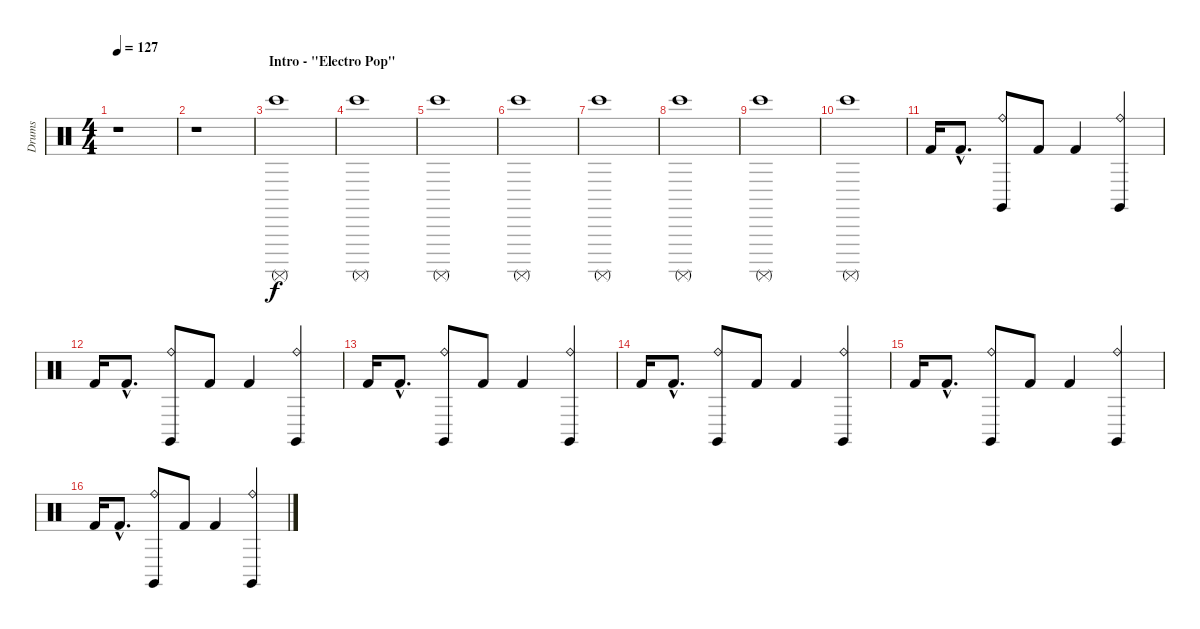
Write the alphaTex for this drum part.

\track ("Drums" "Drums") {instrument percussion}
\staff {score}
\articulation defaults
\ts (4 4)
\tempo 127
\clef neutral
\ks c
r.1{dy f} |
r.1 |
\section ("" "Intro - \"Electro Pop\"")
("Surdo (mute)" "Bongo High (hit)").1{volume 11} |
("Surdo (mute)" "Bongo High (hit)").1 |
("Surdo (mute)" "Bongo High (hit)").1 |
("Surdo (mute)" "Bongo High (hit)").1 |
("Surdo (mute)" "Bongo High (hit)").1 |
("Surdo (mute)" "Bongo High (hit)").1 |
("Surdo (mute)" "Bongo High (hit)").1 |
("Surdo (mute)" "Bongo High (hit)").1 |
"Kick (hit) 2".16{volume 12} "Kick (hit) 2"{hac}.8{d} ("Ride (bell)" "Claves (hit)").8 "Kick (hit) 2".8 "Kick (hit) 2".4 ("Ride (bell)" "Claves (hit)").4 |
"Kick (hit) 2".16 "Kick (hit) 2"{hac}.8{d} ("Ride (bell)" "Claves (hit)").8 "Kick (hit) 2".8 "Kick (hit) 2".4 ("Ride (bell)" "Claves (hit)").4 |
"Kick (hit) 2".16 "Kick (hit) 2"{hac}.8{d} ("Ride (bell)" "Claves (hit)").8 "Kick (hit) 2".8 "Kick (hit) 2".4 ("Ride (bell)" "Claves (hit)").4 |
"Kick (hit) 2".16 "Kick (hit) 2"{hac}.8{d} ("Ride (bell)" "Claves (hit)").8 "Kick (hit) 2".8 "Kick (hit) 2".4 ("Ride (bell)" "Claves (hit)").4 |
"Kick (hit) 2".16 "Kick (hit) 2"{hac}.8{d} ("Ride (bell)" "Claves (hit)").8 "Kick (hit) 2".8 "Kick (hit) 2".4 ("Ride (bell)" "Claves (hit)").4 |
"Kick (hit) 2".16 "Kick (hit) 2"{hac}.8{d} ("Ride (bell)" "Claves (hit)").8 "Kick (hit) 2".8 "Kick (hit) 2".4 ("Ride (bell)" "Claves (hit)").4
